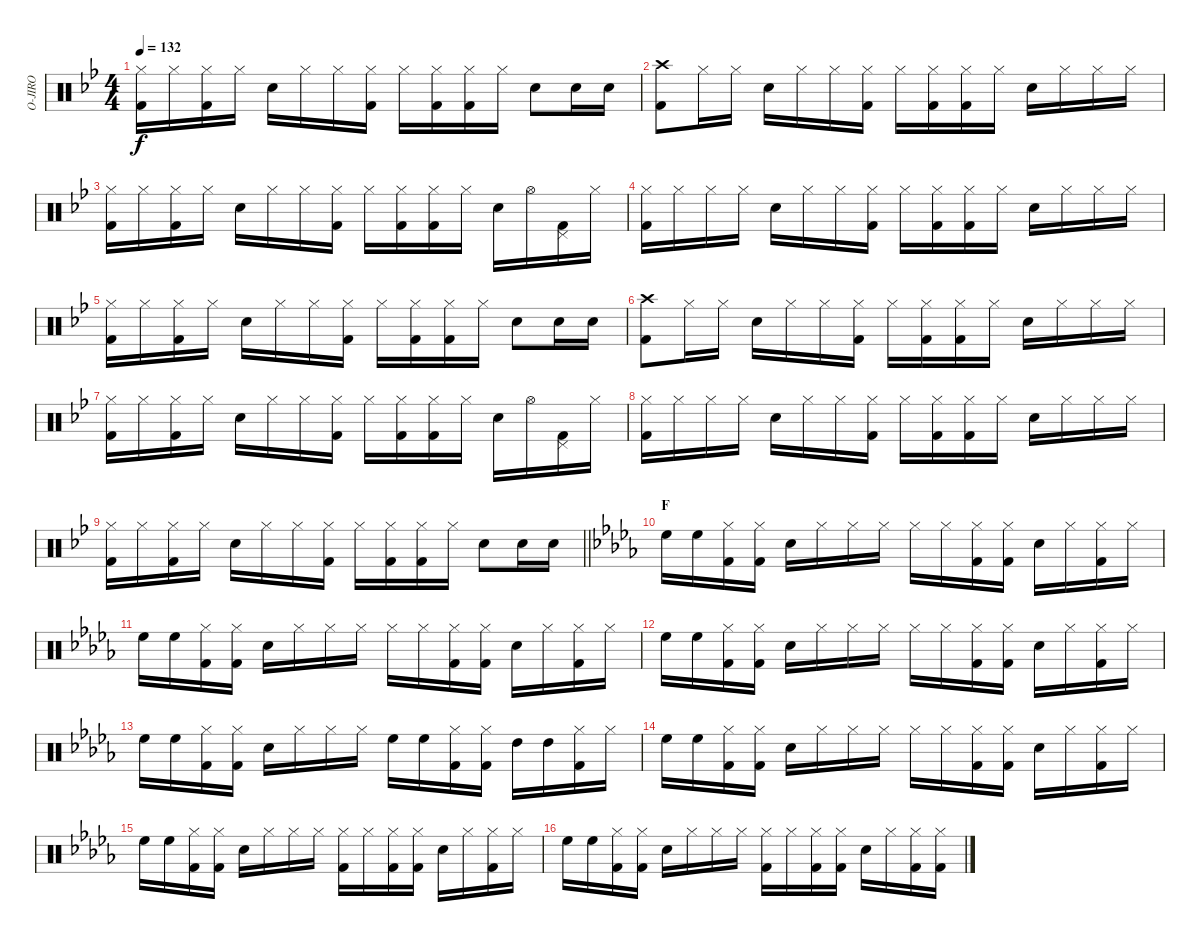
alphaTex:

\track ("O-JIRO" "O-JIRO") {instrument percussion}
\staff {score}
\articulation defaults
\ts (4 4)
\tempo 132
\clef neutral
\ks bb
("Hi-Hat (closed)" "Kick (hit) 2").16{dy f} "Hi-Hat (closed)".16 ("Hi-Hat (closed)" "Kick (hit) 2").16 "Hi-Hat (closed)".16 "Snare (hit) 2".16 "Hi-Hat (closed)".16 "Hi-Hat (closed)".16 ("Hi-Hat (closed)" "Kick (hit) 2").16 "Hi-Hat (closed)".16 ("Hi-Hat (closed)" "Kick (hit) 2").16 ("Hi-Hat (closed)" "Kick (hit) 2").16 "Hi-Hat (closed)".16 "Snare (hit) 2".8 "Snare (hit) 2".16 "Snare (hit) 2".16 |
("Crash high (hit)" "Kick (hit) 2").8 "Hi-Hat (closed)".16 "Hi-Hat (closed)".16 "Snare (hit) 2".16 "Hi-Hat (closed)".16 "Hi-Hat (closed)".16 ("Hi-Hat (closed)" "Kick (hit) 2").16 "Hi-Hat (closed)".16 ("Hi-Hat (closed)" "Kick (hit) 2").16 ("Hi-Hat (closed)" "Kick (hit) 2").16 "Hi-Hat (closed)".16 "Snare (hit) 2".16 "Hi-Hat (closed)".16 "Hi-Hat (closed)".16 "Hi-Hat (closed)".16 |
("Hi-Hat (closed)" "Kick (hit) 2").16 "Hi-Hat (closed)".16 ("Hi-Hat (closed)" "Kick (hit) 2").16 "Hi-Hat (closed)".16 "Snare (hit) 2".16 "Hi-Hat (closed)".16 "Hi-Hat (closed)".16 ("Hi-Hat (closed)" "Kick (hit) 2").16 "Hi-Hat (closed)".16 ("Hi-Hat (closed)" "Kick (hit) 2").16 ("Hi-Hat (closed)" "Kick (hit) 2").16 "Hi-Hat (closed)".16 "Snare (hit) 2".16 "Hi-Hat (open)".16 ("Pedal Hi-Hat (hit)" "Kick (hit) 2").16 "Hi-Hat (closed)".16 |
("Hi-Hat (closed)" "Kick (hit) 2").16 "Hi-Hat (closed)".16 "Hi-Hat (closed)".16 "Hi-Hat (closed)".16 "Snare (hit) 2".16 "Hi-Hat (closed)".16 "Hi-Hat (closed)".16 ("Hi-Hat (closed)" "Kick (hit) 2").16 "Hi-Hat (closed)".16 ("Hi-Hat (closed)" "Kick (hit) 2").16 ("Hi-Hat (closed)" "Kick (hit) 2").16 "Hi-Hat (closed)".16 "Snare (hit) 2".16 "Hi-Hat (closed)".16 "Hi-Hat (closed)".16 "Hi-Hat (closed)".16 |
("Hi-Hat (closed)" "Kick (hit) 2").16 "Hi-Hat (closed)".16 ("Hi-Hat (closed)" "Kick (hit) 2").16 "Hi-Hat (closed)".16 "Snare (hit) 2".16 "Hi-Hat (closed)".16 "Hi-Hat (closed)".16 ("Hi-Hat (closed)" "Kick (hit) 2").16 "Hi-Hat (closed)".16 ("Hi-Hat (closed)" "Kick (hit) 2").16 ("Hi-Hat (closed)" "Kick (hit) 2").16 "Hi-Hat (closed)".16 "Snare (hit) 2".8 "Snare (hit) 2".16 "Snare (hit) 2".16 |
("Crash high (hit)" "Kick (hit) 2").8 "Hi-Hat (closed)".16 "Hi-Hat (closed)".16 "Snare (hit) 2".16 "Hi-Hat (closed)".16 "Hi-Hat (closed)".16 ("Hi-Hat (closed)" "Kick (hit) 2").16 "Hi-Hat (closed)".16 ("Hi-Hat (closed)" "Kick (hit) 2").16 ("Hi-Hat (closed)" "Kick (hit) 2").16 "Hi-Hat (closed)".16 "Snare (hit) 2".16 "Hi-Hat (closed)".16 "Hi-Hat (closed)".16 "Hi-Hat (closed)".16 |
("Hi-Hat (closed)" "Kick (hit) 2").16 "Hi-Hat (closed)".16 ("Hi-Hat (closed)" "Kick (hit) 2").16 "Hi-Hat (closed)".16 "Snare (hit) 2".16 "Hi-Hat (closed)".16 "Hi-Hat (closed)".16 ("Hi-Hat (closed)" "Kick (hit) 2").16 "Hi-Hat (closed)".16 ("Hi-Hat (closed)" "Kick (hit) 2").16 ("Hi-Hat (closed)" "Kick (hit) 2").16 "Hi-Hat (closed)".16 "Snare (hit) 2".16 "Hi-Hat (open)".16 ("Pedal Hi-Hat (hit)" "Kick (hit) 2").16 "Hi-Hat (closed)".16 |
("Hi-Hat (closed)" "Kick (hit) 2").16 "Hi-Hat (closed)".16 "Hi-Hat (closed)".16 "Hi-Hat (closed)".16 "Snare (hit) 2".16 "Hi-Hat (closed)".16 "Hi-Hat (closed)".16 ("Hi-Hat (closed)" "Kick (hit) 2").16 "Hi-Hat (closed)".16 ("Hi-Hat (closed)" "Kick (hit) 2").16 ("Hi-Hat (closed)" "Kick (hit) 2").16 "Hi-Hat (closed)".16 "Snare (hit) 2".16 "Hi-Hat (closed)".16 "Hi-Hat (closed)".16 "Hi-Hat (closed)".16 |
\barLineRight lightlight
("Hi-Hat (closed)" "Kick (hit) 2").16 "Hi-Hat (closed)".16 ("Hi-Hat (closed)" "Kick (hit) 2").16 "Hi-Hat (closed)".16 "Snare (hit) 2".16 "Hi-Hat (closed)".16 "Hi-Hat (closed)".16 ("Hi-Hat (closed)" "Kick (hit) 2").16 "Hi-Hat (closed)".16 ("Hi-Hat (closed)" "Kick (hit) 2").16 ("Hi-Hat (closed)" "Kick (hit) 2").16 "Hi-Hat (closed)".16 "Snare (hit) 2".8 "Snare (hit) 2".16 "Snare (hit) 2".16 |
\section ("" "F")
\ks db "High Floor Tom (hit)".16 "High Floor Tom (hit)".16
("Hi-Hat (closed)" "Kick (hit) 2").16 ("Hi-Hat (closed)" "Kick (hit) 2").16 "Snare (hit) 2".16 "Hi-Hat (closed)".16 "Hi-Hat (closed)".16 "Hi-Hat (closed)".16 "Hi-Hat (closed)".16 "Hi-Hat (closed)".16 ("Hi-Hat (closed)" "Kick (hit) 2").16 ("Hi-Hat (closed)" "Kick (hit) 2").16 "Snare (hit) 2".16 "Hi-Hat (closed)".16 ("Hi-Hat (closed)" "Kick (hit) 2").16 "Hi-Hat (closed)".16 |
"High Floor Tom (hit)".16 "High Floor Tom (hit)".16 ("Hi-Hat (closed)" "Kick (hit) 2").16 ("Hi-Hat (closed)" "Kick (hit) 2").16 "Snare (hit) 2".16 "Hi-Hat (closed)".16 "Hi-Hat (closed)".16 "Hi-Hat (closed)".16 "Hi-Hat (closed)".16 "Hi-Hat (closed)".16 ("Hi-Hat (closed)" "Kick (hit) 2").16 ("Hi-Hat (closed)" "Kick (hit) 2").16 "Snare (hit) 2".16 "Hi-Hat (closed)".16 ("Hi-Hat (closed)" "Kick (hit) 2").16 "Hi-Hat (closed)".16 |
"High Floor Tom (hit)".16 "High Floor Tom (hit)".16 ("Hi-Hat (closed)" "Kick (hit) 2").16 ("Hi-Hat (closed)" "Kick (hit) 2").16 "Snare (hit) 2".16 "Hi-Hat (closed)".16 "Hi-Hat (closed)".16 "Hi-Hat (closed)".16 "Hi-Hat (closed)".16 "Hi-Hat (closed)".16 ("Hi-Hat (closed)" "Kick (hit) 2").16 ("Hi-Hat (closed)" "Kick (hit) 2").16 "Snare (hit) 2".16 "Hi-Hat (closed)".16 ("Hi-Hat (closed)" "Kick (hit) 2").16 "Hi-Hat (closed)".16 |
"High Floor Tom (hit)".16 "High Floor Tom (hit)".16 ("Hi-Hat (closed)" "Kick (hit) 2").16 ("Hi-Hat (closed)" "Kick (hit) 2").16 "Snare (hit) 2".16 "Hi-Hat (closed)".16 "Hi-Hat (closed)".16 "Hi-Hat (closed)".16 "High Floor Tom (hit)".16 "High Floor Tom (hit)".16 ("Hi-Hat (closed)" "Kick (hit) 2").16 ("Hi-Hat (closed)" "Kick (hit) 2").16 "High Tom (hit)".16 "High Tom (hit)".16 ("Hi-Hat (closed)" "Kick (hit) 2").16 "Hi-Hat (closed)".16 |
"High Floor Tom (hit)".16 "High Floor Tom (hit)".16 ("Hi-Hat (closed)" "Kick (hit) 2").16 ("Hi-Hat (closed)" "Kick (hit) 2").16 "Snare (hit) 2".16 "Hi-Hat (closed)".16 "Hi-Hat (closed)".16 "Hi-Hat (closed)".16 "Hi-Hat (closed)".16 "Hi-Hat (closed)".16 ("Hi-Hat (closed)" "Kick (hit) 2").16 ("Hi-Hat (closed)" "Kick (hit) 2").16 "Snare (hit) 2".16 "Hi-Hat (closed)".16 ("Hi-Hat (closed)" "Kick (hit) 2").16 "Hi-Hat (closed)".16 |
"High Floor Tom (hit)".16 "High Floor Tom (hit)".16 ("Hi-Hat (closed)" "Kick (hit) 2").16 ("Hi-Hat (closed)" "Kick (hit) 2").16 "Snare (hit) 2".16 "Hi-Hat (closed)".16 "Hi-Hat (closed)".16 "Hi-Hat (closed)".16 ("Hi-Hat (closed)" "Kick (hit) 2").16 "Hi-Hat (closed)".16 ("Hi-Hat (closed)" "Kick (hit) 2").16 ("Hi-Hat (closed)" "Kick (hit) 2").16 "Snare (hit) 2".16 "Hi-Hat (closed)".16 ("Hi-Hat (closed)" "Kick (hit) 2").16 "Hi-Hat (closed)".16 |
"High Floor Tom (hit)".16 "High Floor Tom (hit)".16 ("Hi-Hat (closed)" "Kick (hit) 2").16 ("Hi-Hat (closed)" "Kick (hit) 2").16 "Snare (hit) 2".16 "Hi-Hat (closed)".16 "Hi-Hat (closed)".16 "Hi-Hat (closed)".16 ("Hi-Hat (closed)" "Kick (hit) 2").16 "Hi-Hat (closed)".16 ("Hi-Hat (closed)" "Kick (hit) 2").16 ("Hi-Hat (closed)" "Kick (hit) 2").16 "Snare (hit) 2".16 "Hi-Hat (closed)".16 ("Hi-Hat (closed)" "Kick (hit) 2").16 ("Hi-Hat (closed)" "Kick (hit) 2").16
